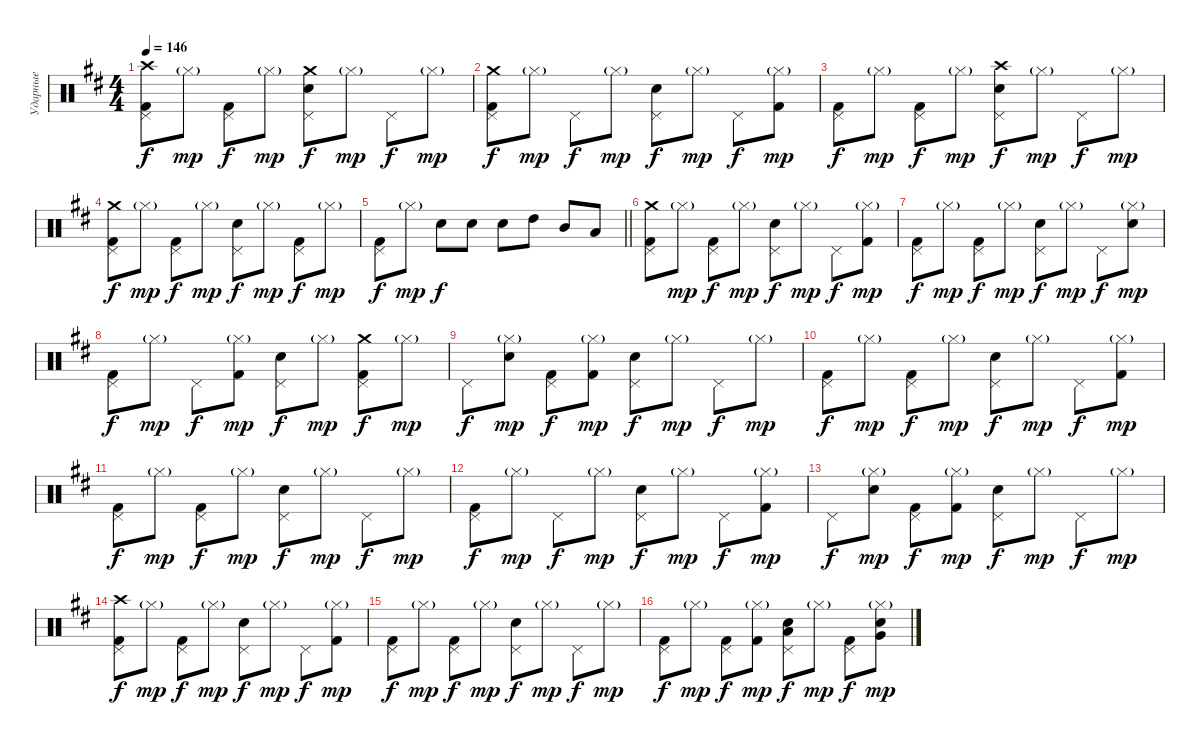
\track ("Ударные" "Ударные") {instrument percussion}
\staff {score}
\articulation defaults
\ts (4 4)
\tempo 146
\clef neutral
\ks bminor
("Crash high (hit)" "Kick (hit) 2" "Pedal Hi-Hat (hit)").8{dy f} "Hi-Hat (closed)"{g}.8{dy mp} ("Kick (hit) 2" "Pedal Hi-Hat (hit)").8{dy f} "Hi-Hat (closed)"{g}.8{dy mp} ("Crash medium (hit)" "Electric Snare (hit)" "Pedal Hi-Hat (hit)").8{dy f} "Hi-Hat (closed)"{g}.8{dy mp} "Pedal Hi-Hat (hit)".8{dy f} "Hi-Hat (closed)"{g}.8{dy mp} |
("Crash medium (hit)" "Kick (hit) 2" "Pedal Hi-Hat (hit)").8{dy f} "Hi-Hat (closed)"{g}.8{dy mp} "Pedal Hi-Hat (hit)".8{dy f} "Hi-Hat (closed)"{g}.8{dy mp} ("Electric Snare (hit)" "Pedal Hi-Hat (hit)").8{dy f} "Hi-Hat (closed)"{g}.8{dy mp} "Pedal Hi-Hat (hit)".8{dy f} ("Kick (hit) 2" "Hi-Hat (closed)"{g}).8{dy mp} |
("Kick (hit) 2" "Pedal Hi-Hat (hit)").8{dy f} "Hi-Hat (closed)"{g}.8{dy mp} ("Kick (hit) 2" "Pedal Hi-Hat (hit)").8{dy f} "Hi-Hat (closed)"{g}.8{dy mp} ("Crash high (hit)" "Electric Snare (hit)" "Pedal Hi-Hat (hit)").8{dy f} "Hi-Hat (closed)"{g}.8{dy mp} "Pedal Hi-Hat (hit)".8{dy f} "Hi-Hat (closed)"{g}.8{dy mp} |
("Crash medium (hit)" "Kick (hit) 2" "Pedal Hi-Hat (hit)").8{dy f} "Hi-Hat (closed)"{g}.8{dy mp} ("Kick (hit) 2" "Pedal Hi-Hat (hit)").8{dy f} "Hi-Hat (closed)"{g}.8{dy mp} ("Electric Snare (hit)" "Pedal Hi-Hat (hit)").8{dy f} "Hi-Hat (closed)"{g}.8{dy mp} ("Kick (hit) 2" "Pedal Hi-Hat (hit)").8{dy f} "Hi-Hat (closed)"{g}.8{dy mp} |
\barLineRight lightlight
("Kick (hit) 2" "Pedal Hi-Hat (hit)").8{dy f} "Hi-Hat (closed)"{g}.8{dy mp} "Electric Snare (hit)".8{dy f} "Electric Snare (hit)".8 "Electric Snare (hit)".8 "High Tom (hit)".8 "Mid Tom (hit)".8 "Low Tom (hit)".8 |
\section ("" "")
("Crash medium (hit)" "Kick (hit) 2" "Pedal Hi-Hat (hit)").8 "Hi-Hat (closed)"{g}.8{dy mp} ("Kick (hit) 2" "Pedal Hi-Hat (hit)").8{dy f} "Hi-Hat (closed)"{g}.8{dy mp} ("Electric Snare (hit)" "Pedal Hi-Hat (hit)").8{dy f} "Hi-Hat (closed)"{g}.8{dy mp} "Pedal Hi-Hat (hit)".8{dy f} ("Kick (hit) 2" "Hi-Hat (closed)"{g}).8{dy mp} |
("Kick (hit) 2" "Pedal Hi-Hat (hit)").8{dy f} "Hi-Hat (closed)"{g}.8{dy mp} ("Kick (hit) 2" "Pedal Hi-Hat (hit)").8{dy f} "Hi-Hat (closed)"{g}.8{dy mp} ("Electric Snare (hit)" "Pedal Hi-Hat (hit)").8{dy f} "Hi-Hat (closed)"{g}.8{dy mp} "Pedal Hi-Hat (hit)".8{dy f} ("Electric Snare (hit)" "Hi-Hat (closed)"{g}).8{dy mp} |
("Kick (hit) 2" "Pedal Hi-Hat (hit)").8{dy f} "Hi-Hat (closed)"{g}.8{dy mp} "Pedal Hi-Hat (hit)".8{dy f} ("Kick (hit) 2" "Hi-Hat (closed)"{g}).8{dy mp} ("Electric Snare (hit)" "Pedal Hi-Hat (hit)").8{dy f} "Hi-Hat (closed)"{g}.8{dy mp} ("Crash medium (hit)" "Kick (hit) 2" "Pedal Hi-Hat (hit)").8{dy f} "Hi-Hat (closed)"{g}.8{dy mp} |
"Pedal Hi-Hat (hit)".8{dy f} ("Electric Snare (hit)" "Hi-Hat (closed)"{g}).8{dy mp} ("Kick (hit) 2" "Pedal Hi-Hat (hit)").8{dy f} ("Kick (hit) 2" "Hi-Hat (closed)"{g}).8{dy mp} ("Electric Snare (hit)" "Pedal Hi-Hat (hit)").8{dy f} "Hi-Hat (closed)"{g}.8{dy mp} "Pedal Hi-Hat (hit)".8{dy f} "Hi-Hat (closed)"{g}.8{dy mp} |
("Kick (hit) 2" "Pedal Hi-Hat (hit)").8{dy f} "Hi-Hat (closed)"{g}.8{dy mp} ("Kick (hit) 2" "Pedal Hi-Hat (hit)").8{dy f} "Hi-Hat (closed)"{g}.8{dy mp} ("Electric Snare (hit)" "Pedal Hi-Hat (hit)").8{dy f} "Hi-Hat (closed)"{g}.8{dy mp} "Pedal Hi-Hat (hit)".8{dy f} ("Kick (hit) 2" "Hi-Hat (closed)"{g}).8{dy mp} |
("Kick (hit) 2" "Pedal Hi-Hat (hit)").8{dy f} "Hi-Hat (closed)"{g}.8{dy mp} ("Kick (hit) 2" "Pedal Hi-Hat (hit)").8{dy f} "Hi-Hat (closed)"{g}.8{dy mp} ("Electric Snare (hit)" "Pedal Hi-Hat (hit)").8{dy f} "Hi-Hat (closed)"{g}.8{dy mp} "Pedal Hi-Hat (hit)".8{dy f} "Hi-Hat (closed)"{g}.8{dy mp} |
("Kick (hit) 2" "Pedal Hi-Hat (hit)").8{dy f} "Hi-Hat (closed)"{g}.8{dy mp} "Pedal Hi-Hat (hit)".8{dy f} "Hi-Hat (closed)"{g}.8{dy mp} ("Electric Snare (hit)" "Pedal Hi-Hat (hit)").8{dy f} "Hi-Hat (closed)"{g}.8{dy mp} "Pedal Hi-Hat (hit)".8{dy f} ("Kick (hit) 2" "Hi-Hat (closed)"{g}).8{dy mp} |
"Pedal Hi-Hat (hit)".8{dy f} ("Electric Snare (hit)" "Hi-Hat (closed)"{g}).8{dy mp} ("Kick (hit) 2" "Pedal Hi-Hat (hit)").8{dy f} ("Kick (hit) 2" "Hi-Hat (closed)"{g}).8{dy mp} ("Electric Snare (hit)" "Pedal Hi-Hat (hit)").8{dy f} "Hi-Hat (closed)"{g}.8{dy mp} "Pedal Hi-Hat (hit)".8{dy f} "Hi-Hat (closed)"{g}.8{dy mp} |
("Crash high (hit)" "Kick (hit) 2" "Pedal Hi-Hat (hit)").8{dy f} "Hi-Hat (closed)"{g}.8{dy mp} ("Kick (hit) 2" "Pedal Hi-Hat (hit)").8{dy f} "Hi-Hat (closed)"{g}.8{dy mp} ("Electric Snare (hit)" "Pedal Hi-Hat (hit)").8{dy f} "Hi-Hat (closed)"{g}.8{dy mp} "Pedal Hi-Hat (hit)".8{dy f} ("Kick (hit) 2" "Hi-Hat (closed)"{g}).8{dy mp} |
("Kick (hit) 2" "Pedal Hi-Hat (hit)").8{dy f} "Hi-Hat (closed)"{g}.8{dy mp} ("Kick (hit) 2" "Pedal Hi-Hat (hit)").8{dy f} "Hi-Hat (closed)"{g}.8{dy mp} ("Electric Snare (hit)" "Pedal Hi-Hat (hit)").8{dy f} "Hi-Hat (closed)"{g}.8{dy mp} "Pedal Hi-Hat (hit)".8{dy f} "Hi-Hat (closed)"{g}.8{dy mp} |
("Kick (hit) 2" "Pedal Hi-Hat (hit)").8{dy f} "Hi-Hat (closed)"{g}.8{dy mp} ("Kick (hit) 2" "Pedal Hi-Hat (hit)").8{dy f} ("Kick (hit) 2" "Hi-Hat (closed)"{g}).8{dy mp} ("Low Tom (hit)" "Electric Snare (hit)" "Pedal Hi-Hat (hit)").8{dy f} "Hi-Hat (closed)"{g}.8{dy mp} ("Kick (hit) 2" "Pedal Hi-Hat (hit)").8{dy f} ("Very Low Tom (hit)" "Electric Snare (hit)" "Hi-Hat (closed)"{g}).8{dy mp}
